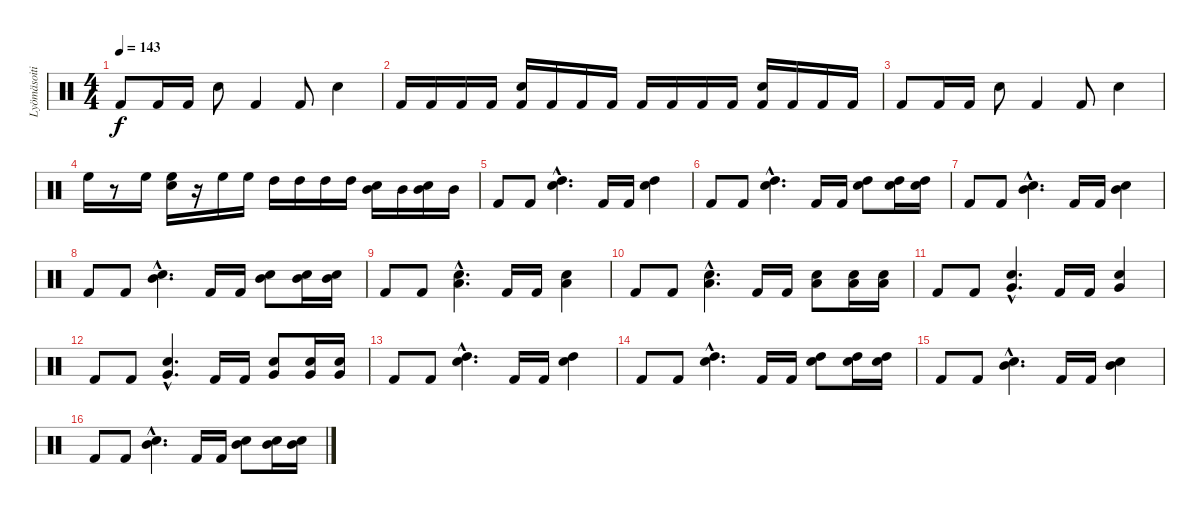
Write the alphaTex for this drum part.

\track ("Lyömäsoitin" "Lyömäsoiti") {instrument percussion}
\staff {score}
\articulation defaults
\ts (4 4)
\tempo 143
\clef neutral
\ks c "Kick (hit) 2".8{dy f} "Kick (hit) 2".16 "Kick (hit) 2".16 "Electric Snare (hit)".8 "Kick (hit) 2".4 "Kick (hit) 2".8 "Electric Snare (hit)".4
|
"Kick (hit) 2".16 "Kick (hit) 2".16 "Kick (hit) 2".16 "Kick (hit) 2".16 ("Kick (hit) 2" "Electric Snare (hit)").16 "Kick (hit) 2".16 "Kick (hit) 2".16 "Kick (hit) 2".16 "Kick (hit) 2".16 "Kick (hit) 2".16 "Kick (hit) 2".16 "Kick (hit) 2".16 ("Kick (hit) 2" "Electric Snare (hit)").16 "Kick (hit) 2".16 "Kick (hit) 2".16 "Kick (hit) 2".16 |
"Kick (hit) 2".8 "Kick (hit) 2".16 "Kick (hit) 2".16 "Electric Snare (hit)".8 "Kick (hit) 2".4 "Kick (hit) 2".8 "Electric Snare (hit)".4 |
"High Floor Tom (hit)".16 r.8 "High Floor Tom (hit)".16 ("High Floor Tom (hit)" "Electric Snare (hit)").16 r.16 "High Floor Tom (hit)".16 "High Floor Tom (hit)".16 "High Tom (hit)".16 "High Tom (hit)".16 "High Tom (hit)".16 "High Tom (hit)".16 ("Mid Tom (hit)" "Electric Snare (hit)").16 "Mid Tom (hit)".16 ("Mid Tom (hit)" "Electric Snare (hit)").16 "Mid Tom (hit)".16 |
"Kick (hit) 2".8 "Kick (hit) 2".8 ("Electric Snare (hit)"{hac} "High Tom (hit)"{hac}).4{d} "Kick (hit) 2".16 "Kick (hit) 2".16 ("Electric Snare (hit)" "High Tom (hit)").4 |
"Kick (hit) 2".8 "Kick (hit) 2".8 ("Electric Snare (hit)"{hac} "High Tom (hit)"{hac}).4{d} "Kick (hit) 2".16 "Kick (hit) 2".16 ("Electric Snare (hit)" "High Tom (hit)").8 ("Electric Snare (hit)" "High Tom (hit)").16 ("Electric Snare (hit)" "High Tom (hit)").16 |
"Kick (hit) 2".8 "Kick (hit) 2".8 ("Electric Snare (hit)"{hac} "Mid Tom (hit)"{hac}).4{d} "Kick (hit) 2".16 "Kick (hit) 2".16 ("Electric Snare (hit)" "Mid Tom (hit)").4 |
"Kick (hit) 2".8 "Kick (hit) 2".8 ("Electric Snare (hit)"{hac} "Mid Tom (hit)"{hac}).4{d} "Kick (hit) 2".16 "Kick (hit) 2".16 ("Electric Snare (hit)" "Mid Tom (hit)").8 ("Electric Snare (hit)" "Mid Tom (hit)").16 ("Electric Snare (hit)" "Mid Tom (hit)").16 |
"Kick (hit) 2".8 "Kick (hit) 2".8 ("Electric Snare (hit)"{hac} "Low Tom (hit)"{hac}).4{d} "Kick (hit) 2".16 "Kick (hit) 2".16 ("Electric Snare (hit)" "Low Tom (hit)").4 |
"Kick (hit) 2".8 "Kick (hit) 2".8 ("Electric Snare (hit)"{hac} "Low Tom (hit)"{hac}).4{d} "Kick (hit) 2".16 "Kick (hit) 2".16 ("Electric Snare (hit)" "Low Tom (hit)").8 ("Electric Snare (hit)" "Low Tom (hit)").16 ("Electric Snare (hit)" "Low Tom (hit)").16 |
"Kick (hit) 2".8 "Kick (hit) 2".8 ("Electric Snare (hit)"{hac} "Very Low Tom (hit)"{hac}).4{d} "Kick (hit) 2".16 "Kick (hit) 2".16 ("Electric Snare (hit)" "Very Low Tom (hit)").4 |
"Kick (hit) 2".8 "Kick (hit) 2".8 ("Electric Snare (hit)"{hac} "Very Low Tom (hit)"{hac}).4{d} "Kick (hit) 2".16 "Kick (hit) 2".16 ("Electric Snare (hit)" "Very Low Tom (hit)").8 ("Electric Snare (hit)" "Very Low Tom (hit)").16 ("Electric Snare (hit)" "Very Low Tom (hit)").16 |
"Kick (hit) 2".8 "Kick (hit) 2".8 ("Electric Snare (hit)"{hac} "High Tom (hit)"{hac}).4{d} "Kick (hit) 2".16 "Kick (hit) 2".16 ("Electric Snare (hit)" "High Tom (hit)").4 |
"Kick (hit) 2".8 "Kick (hit) 2".8 ("Electric Snare (hit)"{hac} "High Tom (hit)"{hac}).4{d} "Kick (hit) 2".16 "Kick (hit) 2".16 ("Electric Snare (hit)" "High Tom (hit)").8 ("Electric Snare (hit)" "High Tom (hit)").16 ("Electric Snare (hit)" "High Tom (hit)").16 |
"Kick (hit) 2".8 "Kick (hit) 2".8 ("Electric Snare (hit)"{hac} "Mid Tom (hit)"{hac}).4{d} "Kick (hit) 2".16 "Kick (hit) 2".16 ("Electric Snare (hit)" "Mid Tom (hit)").4 |
"Kick (hit) 2".8 "Kick (hit) 2".8 ("Electric Snare (hit)"{hac} "Mid Tom (hit)"{hac}).4{d} "Kick (hit) 2".16 "Kick (hit) 2".16 ("Electric Snare (hit)" "Mid Tom (hit)").8 ("Electric Snare (hit)" "Mid Tom (hit)").16 ("Electric Snare (hit)" "Mid Tom (hit)").16
